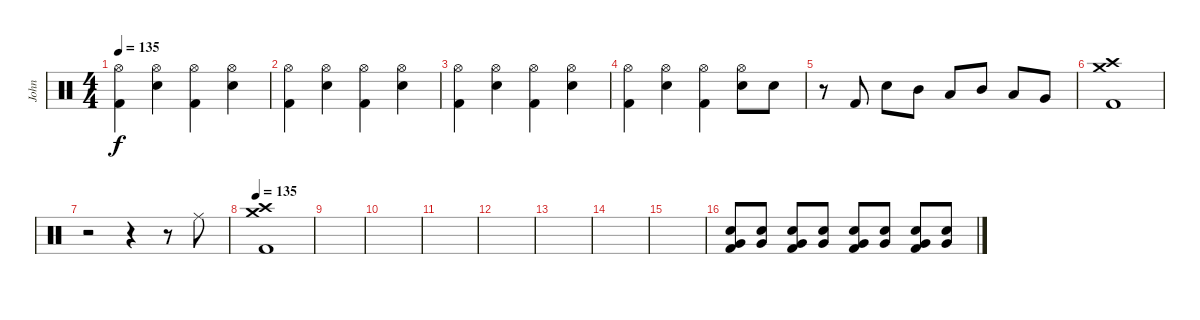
\track ("John" "John") {instrument percussion}
\staff {score}
\articulation defaults
\ts (4 4)
\tempo 135
\clef neutral
\ks c
("Hi-Hat (open)" "Kick (hit) 2").4{dy f} ("Hi-Hat (open)" "Electric Snare (hit)").4 ("Hi-Hat (open)" "Kick (hit) 2").4 ("Hi-Hat (open)" "Electric Snare (hit)").4 |
("Hi-Hat (open)" "Kick (hit) 2").4 ("Hi-Hat (open)" "Electric Snare (hit)").4 ("Hi-Hat (open)" "Kick (hit) 2").4 ("Hi-Hat (open)" "Electric Snare (hit)").4 |
("Hi-Hat (open)" "Kick (hit) 2").4 ("Hi-Hat (open)" "Electric Snare (hit)").4 ("Hi-Hat (open)" "Kick (hit) 2").4 ("Hi-Hat (open)" "Electric Snare (hit)").4 |
("Hi-Hat (open)" "Kick (hit) 2").4 ("Hi-Hat (open)" "Electric Snare (hit)").4 ("Hi-Hat (open)" "Kick (hit) 2").4 ("Hi-Hat (open)" "Electric Snare (hit)").8 "Electric Snare (hit)".8 |
r.8 "Kick (hit) 2".8 "Electric Snare (hit)".8 "Mid Tom (hit)".8 "Low Tom (hit)".8 "Mid Tom (hit)".8 "Low Tom (hit)".8 "Very Low Tom (hit)".8 |
("Crash high (hit)" "Crash medium (hit)" "Kick (hit) 2").1 |
r.2 r.4 r.8 "Ride (middle)".8 |
\tempo 135
("Crash medium (hit)" "Crash high (hit)" "Kick (hit) 2").1 |
|
|
|
|
|
|
|
("Very Low Tom (hit)" "Electric Snare (hit)" "Kick (hit) 2").8{volume 4} ("Very Low Tom (hit)" "Electric Snare (hit)").8 ("Very Low Tom (hit)" "Electric Snare (hit)" "Kick (hit) 2").8 ("Very Low Tom (hit)" "Electric Snare (hit)").8 ("Very Low Tom (hit)" "Electric Snare (hit)" "Kick (hit) 2").8 ("Very Low Tom (hit)" "Electric Snare (hit)").8 ("Very Low Tom (hit)" "Electric Snare (hit)" "Kick (hit) 2").8 ("Very Low Tom (hit)" "Electric Snare (hit)").8
